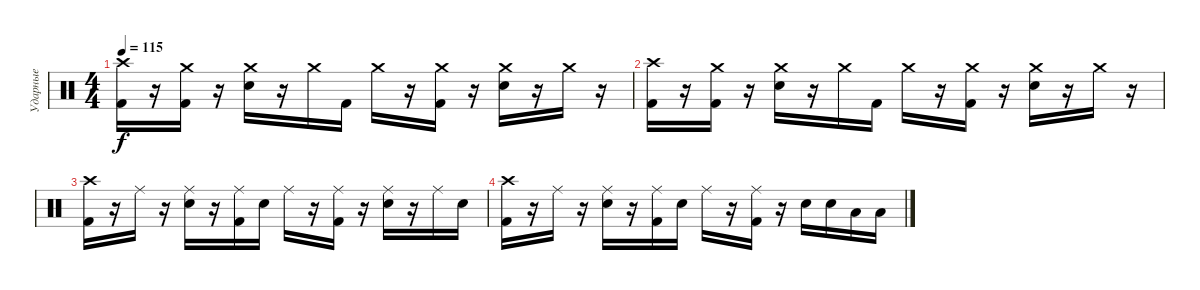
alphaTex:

\track ("Ударные" "Ударные") {instrument percussion}
\staff {score}
\articulation defaults
\ts (4 4)
\tempo 115
\clef neutral
\ks c
("Crash high (hit)" "Kick (hit) 2").16{dy f} r.16 ("Crash medium (hit)" "Kick (hit) 2").16 r.16 ("Crash medium (hit)" "Electric Snare (hit)").16 r.16 "Crash medium (hit)".16 "Kick (hit) 2".16 "Crash medium (hit)".16 r.16 ("Crash medium (hit)" "Kick (hit) 2").16 r.16 ("Crash medium (hit)" "Electric Snare (hit)").16 r.16 "Crash medium (hit)".16 r.16 |
("Crash high (hit)" "Kick (hit) 2").16 r.16 ("Crash medium (hit)" "Kick (hit) 2").16 r.16 ("Crash medium (hit)" "Electric Snare (hit)").16 r.16 "Crash medium (hit)".16 "Kick (hit) 2".16 "Crash medium (hit)".16 r.16 ("Crash medium (hit)" "Kick (hit) 2").16 r.16 ("Crash medium (hit)" "Electric Snare (hit)").16 r.16 "Crash medium (hit)".16 r.16 |
("Crash high (hit)" "Kick (hit) 2").16 r.16 "Ride (middle)".16 r.16 ("Ride (middle)" "Electric Snare (hit)").16 r.16 ("Ride (middle)" "Kick (hit) 2").16 "Electric Snare (hit)".16 "Ride (middle)".16 r.16 ("Ride (middle)" "Kick (hit) 2").16 r.16 ("Ride (middle)" "Electric Snare (hit)").16 r.16 "Ride (middle)".16 "Electric Snare (hit)".16 |
("Crash high (hit)" "Kick (hit) 2").16 r.16 "Ride (middle)".16 r.16 ("Ride (middle)" "Electric Snare (hit)").16 r.16 ("Ride (middle)" "Kick (hit) 2").16 "Electric Snare (hit)".16 "Ride (middle)".16 r.16 ("Ride (middle)" "Kick (hit) 2").16 r.16 "Electric Snare (hit)".16 "Electric Snare (hit)".16 "Low Floor Tom (hit)".16 "Low Floor Tom (hit)".16
